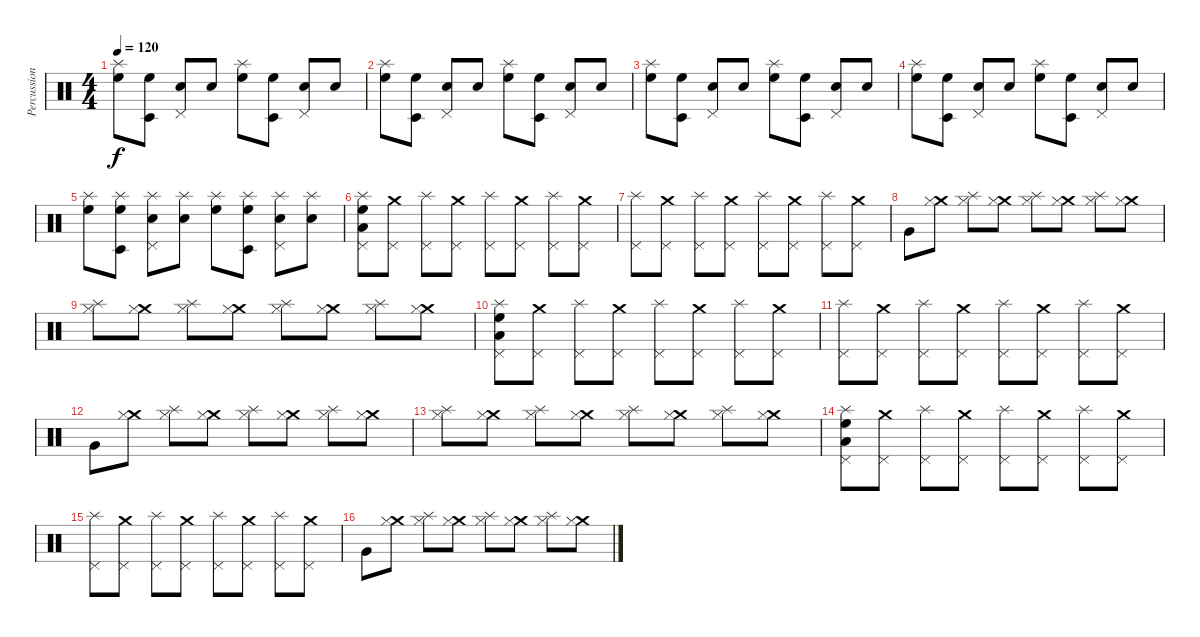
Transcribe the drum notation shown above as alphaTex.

\track ("Percussion" "Percussion") {instrument percussion}
\staff {score}
\articulation defaults
\ts (4 4)
\tempo 120
\clef neutral
\ks c
("Splash (hit)" "High Floor Tom (hit)").8{dy f} ("Timbale low (hit)" "High Floor Tom (hit)").8 ("Pedal Hi-Hat (hit)" "Electric Snare (hit)").8 "Electric Snare (hit)".8 ("Splash (hit)" "High Floor Tom (hit)").8 ("Timbale low (hit)" "High Floor Tom (hit)").8 ("Pedal Hi-Hat (hit)" "Electric Snare (hit)").8 "Electric Snare (hit)".8 |
("Splash (hit)" "High Floor Tom (hit)").8 ("Timbale low (hit)" "High Floor Tom (hit)").8 ("Pedal Hi-Hat (hit)" "Electric Snare (hit)").8 "Electric Snare (hit)".8 ("Splash (hit)" "High Floor Tom (hit)").8 ("Timbale low (hit)" "High Floor Tom (hit)").8 ("Pedal Hi-Hat (hit)" "Electric Snare (hit)").8 "Electric Snare (hit)".8 |
("Splash (hit)" "High Floor Tom (hit)").8 ("Timbale low (hit)" "High Floor Tom (hit)").8 ("Pedal Hi-Hat (hit)" "Electric Snare (hit)").8 "Electric Snare (hit)".8 ("Splash (hit)" "High Floor Tom (hit)").8 ("Timbale low (hit)" "High Floor Tom (hit)").8 ("Pedal Hi-Hat (hit)" "Electric Snare (hit)").8 "Electric Snare (hit)".8 |
("Splash (hit)" "High Floor Tom (hit)").8 ("Timbale low (hit)" "High Floor Tom (hit)").8 ("Pedal Hi-Hat (hit)" "Electric Snare (hit)").8 "Electric Snare (hit)".8 ("Splash (hit)" "High Floor Tom (hit)").8 ("Timbale low (hit)" "High Floor Tom (hit)").8 ("Pedal Hi-Hat (hit)" "Electric Snare (hit)").8 "Electric Snare (hit)".8 |
("Splash (hit)" "High Floor Tom (hit)").8 ("Splash (hit)" "Timbale low (hit)" "High Floor Tom (hit)").8 ("Splash (hit)" "Pedal Hi-Hat (hit)" "Electric Snare (hit)").8 ("Splash (hit)" "Electric Snare (hit)").8 ("Splash (hit)" "High Floor Tom (hit)").8 ("Splash (hit)" "Timbale low (hit)" "High Floor Tom (hit)").8 ("Splash (hit)" "Pedal Hi-Hat (hit)" "Electric Snare (hit)").8 ("Splash (hit)" "Electric Snare (hit)").8 |
("Splash (hit)" "Pedal Hi-Hat (hit)" "High Floor Tom (hit)" "Low Tom (hit)").8 ("Crash medium (hit)" "Pedal Hi-Hat (hit)").8 ("Splash (hit)" "Pedal Hi-Hat (hit)").8 ("Crash medium (hit)" "Pedal Hi-Hat (hit)").8 ("Splash (hit)" "Pedal Hi-Hat (hit)").8 ("Crash medium (hit)" "Pedal Hi-Hat (hit)").8 ("Splash (hit)" "Pedal Hi-Hat (hit)").8 ("Crash medium (hit)" "Pedal Hi-Hat (hit)").8 |
("Splash (hit)" "Pedal Hi-Hat (hit)").8 ("Crash medium (hit)" "Pedal Hi-Hat (hit)").8 ("Splash (hit)" "Pedal Hi-Hat (hit)").8 ("Crash medium (hit)" "Pedal Hi-Hat (hit)").8 ("Splash (hit)" "Pedal Hi-Hat (hit)").8 ("Crash medium (hit)" "Pedal Hi-Hat (hit)").8 ("Splash (hit)" "Pedal Hi-Hat (hit)").8 ("Crash medium (hit)" "Pedal Hi-Hat (hit)").8 |
"Very Low Tom (hit)".8 ("Crash medium (hit)" "Hi-Hat (closed)").8 ("Splash (hit)" "Hi-Hat (closed)").8 ("Crash medium (hit)" "Hi-Hat (closed)").8 ("Splash (hit)" "Hi-Hat (closed)").8 ("Crash medium (hit)" "Hi-Hat (closed)").8 ("Splash (hit)" "Hi-Hat (closed)").8 ("Crash medium (hit)" "Hi-Hat (closed)").8 |
("Splash (hit)" "Hi-Hat (closed)").8 ("Crash medium (hit)" "Hi-Hat (closed)").8 ("Splash (hit)" "Hi-Hat (closed)").8 ("Crash medium (hit)" "Hi-Hat (closed)").8 ("Splash (hit)" "Hi-Hat (closed)").8 ("Crash medium (hit)" "Hi-Hat (closed)").8 ("Splash (hit)" "Hi-Hat (closed)").8 ("Crash medium (hit)" "Hi-Hat (closed)").8 |
("Splash (hit)" "Pedal Hi-Hat (hit)" "High Floor Tom (hit)" "Low Tom (hit)").8 ("Crash medium (hit)" "Pedal Hi-Hat (hit)").8 ("Splash (hit)" "Pedal Hi-Hat (hit)").8 ("Crash medium (hit)" "Pedal Hi-Hat (hit)").8 ("Splash (hit)" "Pedal Hi-Hat (hit)").8 ("Crash medium (hit)" "Pedal Hi-Hat (hit)").8 ("Splash (hit)" "Pedal Hi-Hat (hit)").8 ("Crash medium (hit)" "Pedal Hi-Hat (hit)").8 |
("Splash (hit)" "Pedal Hi-Hat (hit)").8 ("Crash medium (hit)" "Pedal Hi-Hat (hit)").8 ("Splash (hit)" "Pedal Hi-Hat (hit)").8 ("Crash medium (hit)" "Pedal Hi-Hat (hit)").8 ("Splash (hit)" "Pedal Hi-Hat (hit)").8 ("Crash medium (hit)" "Pedal Hi-Hat (hit)").8 ("Splash (hit)" "Pedal Hi-Hat (hit)").8 ("Crash medium (hit)" "Pedal Hi-Hat (hit)").8 |
"Very Low Tom (hit)".8 ("Crash medium (hit)" "Hi-Hat (closed)").8 ("Splash (hit)" "Hi-Hat (closed)").8 ("Crash medium (hit)" "Hi-Hat (closed)").8 ("Splash (hit)" "Hi-Hat (closed)").8 ("Crash medium (hit)" "Hi-Hat (closed)").8 ("Splash (hit)" "Hi-Hat (closed)").8 ("Crash medium (hit)" "Hi-Hat (closed)").8 |
("Splash (hit)" "Hi-Hat (closed)").8 ("Crash medium (hit)" "Hi-Hat (closed)").8 ("Splash (hit)" "Hi-Hat (closed)").8 ("Crash medium (hit)" "Hi-Hat (closed)").8 ("Splash (hit)" "Hi-Hat (closed)").8 ("Crash medium (hit)" "Hi-Hat (closed)").8 ("Splash (hit)" "Hi-Hat (closed)").8 ("Crash medium (hit)" "Hi-Hat (closed)").8 |
("Splash (hit)" "Pedal Hi-Hat (hit)" "High Floor Tom (hit)" "Low Tom (hit)").8 ("Crash medium (hit)" "Pedal Hi-Hat (hit)").8 ("Splash (hit)" "Pedal Hi-Hat (hit)").8 ("Crash medium (hit)" "Pedal Hi-Hat (hit)").8 ("Splash (hit)" "Pedal Hi-Hat (hit)").8 ("Crash medium (hit)" "Pedal Hi-Hat (hit)").8 ("Splash (hit)" "Pedal Hi-Hat (hit)").8 ("Crash medium (hit)" "Pedal Hi-Hat (hit)").8 |
("Splash (hit)" "Pedal Hi-Hat (hit)").8 ("Crash medium (hit)" "Pedal Hi-Hat (hit)").8 ("Splash (hit)" "Pedal Hi-Hat (hit)").8 ("Crash medium (hit)" "Pedal Hi-Hat (hit)").8 ("Splash (hit)" "Pedal Hi-Hat (hit)").8 ("Crash medium (hit)" "Pedal Hi-Hat (hit)").8 ("Splash (hit)" "Pedal Hi-Hat (hit)").8 ("Crash medium (hit)" "Pedal Hi-Hat (hit)").8 |
"Very Low Tom (hit)".8 ("Crash medium (hit)" "Hi-Hat (closed)").8 ("Splash (hit)" "Hi-Hat (closed)").8 ("Crash medium (hit)" "Hi-Hat (closed)").8 ("Splash (hit)" "Hi-Hat (closed)").8 ("Crash medium (hit)" "Hi-Hat (closed)").8 ("Splash (hit)" "Hi-Hat (closed)").8 ("Crash medium (hit)" "Hi-Hat (closed)").8
